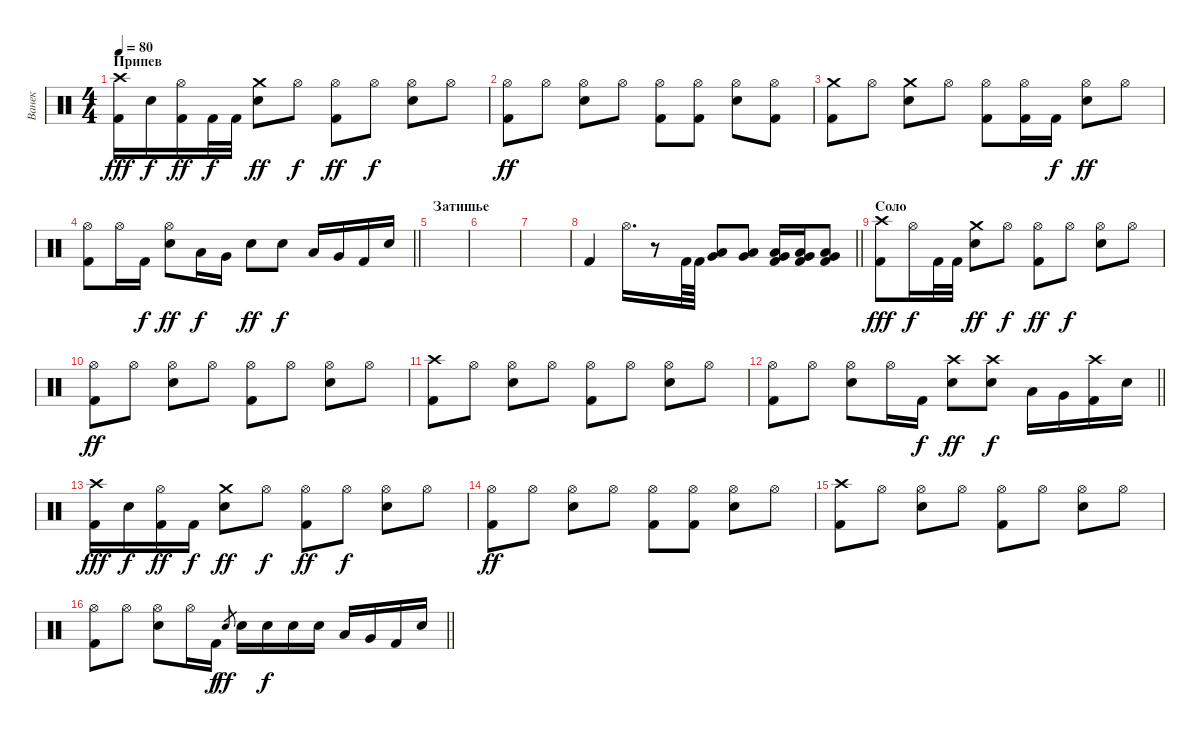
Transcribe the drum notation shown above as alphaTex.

\track ("Ванек" "Ванек") {instrument percussion}
\staff {score}
\articulation defaults
\ts (4 4)
\section ("" "Припев")
\tempo 80
\clef neutral
\ks c
("Crash high (hit)" "Kick (hit) 2").16{dy fff} "Electric Snare (hit)".16{dy f} ("Hi-Hat (open)" "Kick (hit) 2").16{dy ff} "Kick (hit) 2".32{dy f} "Kick (hit) 2".32 ("Crash medium (hit)" "Electric Snare (hit)").8{dy ff} "Hi-Hat (open)".8{dy f} ("Hi-Hat (open)" "Kick (hit) 2").8{dy ff} "Hi-Hat (open)".8{dy f} ("Hi-Hat (open)" "Electric Snare (hit)").8 "Hi-Hat (open)".8 |
("Hi-Hat (open)" "Kick (hit) 2").8{dy ff} "Hi-Hat (open)".8 ("Hi-Hat (open)" "Electric Snare (hit)").8 "Hi-Hat (open)".8 ("Hi-Hat (open)" "Kick (hit) 2").8 ("Hi-Hat (open)" "Kick (hit) 2").8 ("Hi-Hat (open)" "Electric Snare (hit)").8 ("Hi-Hat (open)" "Kick (hit) 2").8 |
("Crash medium (hit)" "Kick (hit) 2").8 "Hi-Hat (open)".8 ("Crash medium (hit)" "Electric Snare (hit)").8 "Hi-Hat (open)".8 ("Hi-Hat (open)" "Kick (hit) 2").8 ("Hi-Hat (open)" "Kick (hit) 2").16 "Kick (hit) 2".16{dy f} ("Hi-Hat (open)" "Electric Snare (hit)").8{dy ff} "Hi-Hat (open)".8 |
\barLineRight lightlight
("Hi-Hat (open)" "Kick (hit) 2").8 "Hi-Hat (open)".16 "Kick (hit) 2".16{dy f} ("Hi-Hat (open)" "Electric Snare (hit)").8{dy ff} "Low Floor Tom (hit)".16{dy f} "Very Low Tom (hit)".16 "Electric Snare (hit)".8{dy ff} "Electric Snare (hit)".8{dy f} "Low Floor Tom (hit)".16 "Very Low Tom (hit)".16 "Kick (hit) 2".16 "Electric Snare (hit)".16 |
\section ("" "Затишье")
|
|
|
\barLineRight lightlight "Kick (hit) 2".4 "Hi-Hat (open)".16{d}
r.8 "Kick (hit) 2".64 "Kick (hit) 2".64 ("Low Tom (hit)" "Very Low Tom (hit)").8 ("Low Tom (hit)" "Very Low Tom (hit)").8 ("Very Low Tom (hit)" "Low Floor Tom (hit)" "Kick (hit) 2").16 ("Very Low Tom (hit)" "Low Floor Tom (hit)" "Kick (hit) 2").16 ("Very Low Tom (hit)" "Low Floor Tom (hit)" "Kick (hit) 2").8 |
\section ("" "Соло")
("Crash high (hit)" "Kick (hit) 2").8{dy fff} "Hi-Hat (open)".16{dy f} "Kick (hit) 2".32 "Kick (hit) 2".32 ("Crash medium (hit)" "Electric Snare (hit)").8{dy ff} "Hi-Hat (open)".8{dy f} ("Hi-Hat (open)" "Kick (hit) 2").8{dy ff} "Hi-Hat (open)".8{dy f} ("Hi-Hat (open)" "Electric Snare (hit)").8 "Hi-Hat (open)".8 |
("Hi-Hat (open)" "Kick (hit) 2").8{dy ff} "Hi-Hat (open)".8 ("Hi-Hat (open)" "Electric Snare (hit)").8 "Hi-Hat (open)".8 ("Hi-Hat (open)" "Kick (hit) 2").8 "Hi-Hat (open)".8 ("Hi-Hat (open)" "Electric Snare (hit)").8 "Hi-Hat (open)".8 |
("Crash high (hit)" "Kick (hit) 2").8 "Hi-Hat (open)".8 ("Hi-Hat (open)" "Electric Snare (hit)").8 "Hi-Hat (open)".8 ("Hi-Hat (open)" "Kick (hit) 2").8 "Hi-Hat (open)".8 ("Hi-Hat (open)" "Electric Snare (hit)").8 "Hi-Hat (open)".8 |
\barLineRight lightlight
("Hi-Hat (open)" "Kick (hit) 2").8 "Hi-Hat (open)".8 ("Hi-Hat (open)" "Electric Snare (hit)").8 "Hi-Hat (open)".16 "Kick (hit) 2".16{dy f} ("Crash high (hit)" "Electric Snare (hit)").8{dy ff} ("Crash high (hit)" "Electric Snare (hit)").8{dy f} "Low Floor Tom (hit)".16 "Very Low Tom (hit)".16 ("Crash high (hit)" "Kick (hit) 2").16 "Electric Snare (hit)".16 |
("Crash high (hit)" "Kick (hit) 2").16{dy fff} "Electric Snare (hit)".16{dy f} ("Hi-Hat (open)" "Kick (hit) 2").16{dy ff} "Kick (hit) 2".16{dy f} ("Crash medium (hit)" "Electric Snare (hit)").8{dy ff} "Hi-Hat (open)".8{dy f} ("Hi-Hat (open)" "Kick (hit) 2").8{dy ff} "Hi-Hat (open)".8{dy f} ("Hi-Hat (open)" "Electric Snare (hit)").8 "Hi-Hat (open)".8 |
("Hi-Hat (open)" "Kick (hit) 2").8{dy ff} "Hi-Hat (open)".8 ("Hi-Hat (open)" "Electric Snare (hit)").8 "Hi-Hat (open)".8 ("Hi-Hat (open)" "Kick (hit) 2").8 ("Hi-Hat (open)" "Kick (hit) 2").8 ("Hi-Hat (open)" "Electric Snare (hit)").8 "Hi-Hat (open)".8 |
("Crash high (hit)" "Kick (hit) 2").8 "Hi-Hat (open)".8 ("Hi-Hat (open)" "Electric Snare (hit)").8 "Hi-Hat (open)".8 ("Hi-Hat (open)" "Kick (hit) 2").8 "Hi-Hat (open)".8 ("Hi-Hat (open)" "Electric Snare (hit)").8 "Hi-Hat (open)".8 |
\barLineRight lightlight
("Hi-Hat (open)" "Kick (hit) 2").8 "Hi-Hat (open)".8 ("Hi-Hat (open)" "Electric Snare (hit)").8 "Hi-Hat (open)".16 "Kick (hit) 2".16{dy f} "Electric Snare (hit)".8{gr dy ff} "Electric Snare (hit)".16 "Electric Snare (hit)".16{dy f} "Electric Snare (hit)".16 "Electric Snare (hit)".16 "Low Floor Tom (hit)".16 "Very Low Tom (hit)".16 "Kick (hit) 2".16 "Electric Snare (hit)".16
